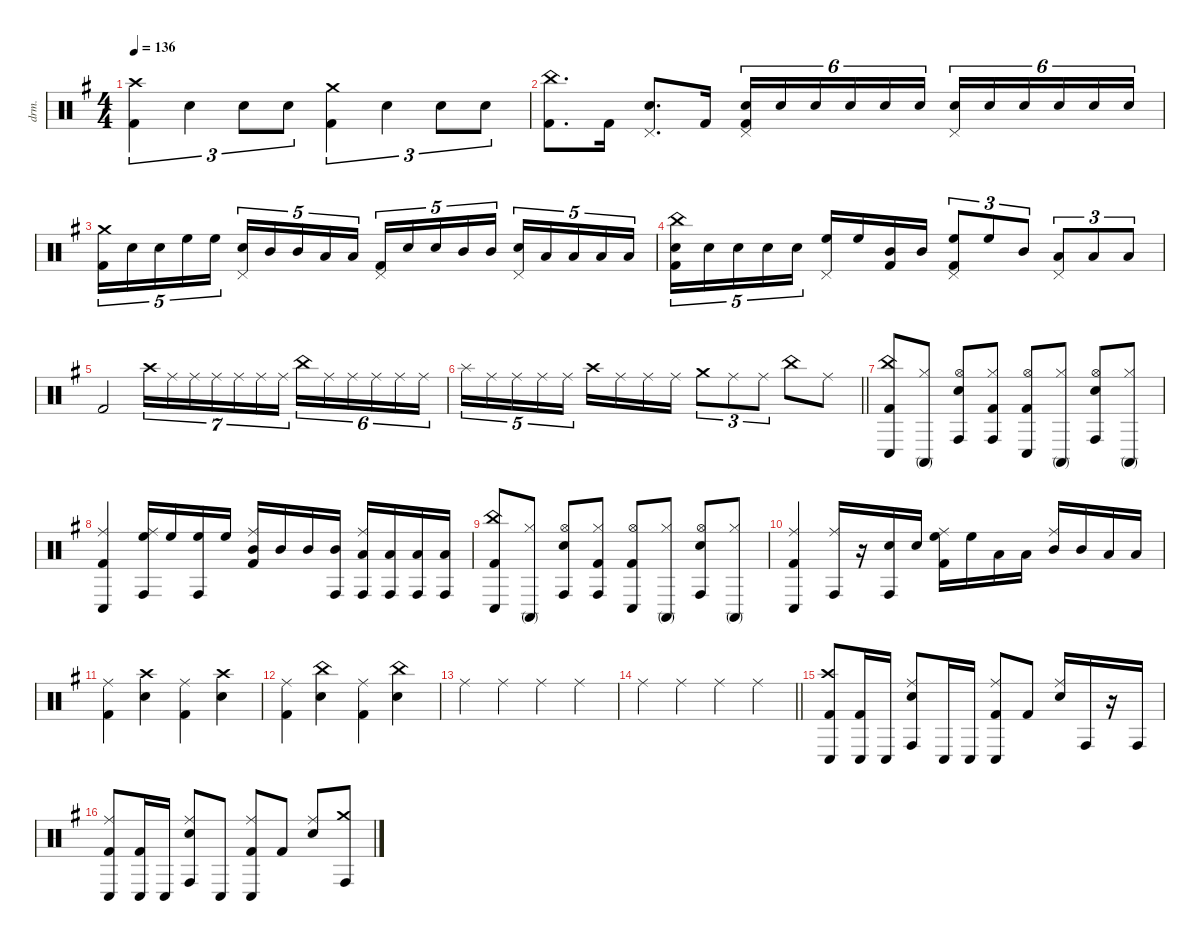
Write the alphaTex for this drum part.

\defaultSystemsLayout 4
\hideDynamics
\bracketExtendMode nobrackets
\otherSystemsTrackNameOrientation horizontal
\track ("Batterie" "drm.") {instrument percussion}
\staff {score}
\articulation defaults
\ts (4 4)
\tempo 136
\clef neutral
\ks g
("Crash high (hit)"{acc forcenatural} "Kick (hit) 2"{acc forcenatural}).4{tu (3 2) dy f beam Down} "Snare (hit) 2"{acc forcenatural}.4{tu (3 2) beam Down} "Snare (hit) 2"{acc forcenatural}.8{tu (3 2) beam Down} "Snare (hit) 2"{acc forcenatural}.8{tu (3 2) beam Down} ("Crash medium (hit)"{acc forcenatural} "Kick (hit) 2"{acc forcenatural}).4{tu (3 2) beam Down} "Snare (hit) 2"{acc forcenatural}.4{tu (3 2) beam Down} "Snare (hit) 2"{acc forcenatural}.8{tu (3 2) beam Down} "Snare (hit) 2"{acc forcenatural}.8{tu (3 2) beam Down} |
("China (hit)"{acc forcenatural} "Kick (hit) 2"{acc forcenatural}).8{d beam Down} "Kick (hit) 2"{acc forcenatural}.16{beam Down} ("Pedal Hi-Hat (hit)"{acc forcenatural} "Snare (hit) 2"{acc forcenatural}).8{d beam Up} "Kick (hit) 2"{acc forcenatural}.16{beam Up} ("Pedal Hi-Hat (hit)"{acc forcenatural} "Snare (hit) 2"{acc forcenatural} "Kick (hit) 2"{acc forcenatural}).16{tu (6 4) dy p beam Up} "Snare (hit) 2"{acc forcenatural}.16{tu (6 4) beam Up} "Snare (hit) 2"{acc forcenatural}.16{tu (6 4) beam Up} "Snare (hit) 2"{acc forcenatural}.16{tu (6 4) dy mp beam Up} "Snare (hit) 2"{acc forcenatural}.16{tu (6 4) beam Up} "Snare (hit) 2"{acc forcenatural}.16{tu (6 4) beam Up} ("Pedal Hi-Hat (hit)"{acc forcenatural} "Snare (hit) 2"{acc forcenatural}).16{tu (6 4) dy p beam Up} "Snare (hit) 2"{acc forcenatural}.16{tu (6 4) dy mf beam Up} "Snare (hit) 2"{acc forcenatural}.16{tu (6 4) beam Up} "Snare (hit) 2"{acc forcenatural}.16{tu (6 4) dy f beam Up} "Snare (hit) 2"{acc forcenatural}.16{tu (6 4) beam Up} "Snare (hit) 2"{acc forcenatural}.16{tu (6 4) beam Up} |
("Crash medium (hit)"{acc forcenatural} "Kick (hit) 2"{acc forcenatural}).16{tu (5 4) beam Down} "Snare (hit) 2"{acc forcenatural}.16{tu (5 4) beam Down} "Snare (hit) 2"{acc forcenatural}.16{tu (5 4) beam Down} "High Floor Tom (hit)"{acc forcenatural}.16{tu (5 4) beam Down} "High Floor Tom (hit)"{acc forcenatural}.16{tu (5 4) beam Down} ("Pedal Hi-Hat (hit)"{acc forcenatural} "Snare (hit) 2"{acc forcenatural}).16{tu (5 4) beam Up} "Mid Tom (hit)"{acc forcenatural}.16{tu (5 4) beam Up} "Mid Tom (hit)"{acc forcenatural}.16{tu (5 4) beam Up} "Low Tom (hit)"{acc forcenatural}.16{tu (5 4) beam Up} "Low Tom (hit)"{acc forcenatural}.16{tu (5 4) beam Up} ("Pedal Hi-Hat (hit)"{acc forcenatural} "Kick (hit) 2"{acc forcenatural}).16{tu (5 4) beam Up} "Snare (hit) 2"{acc forcenatural}.16{tu (5 4) beam Up} "Snare (hit) 2"{acc forcenatural}.16{tu (5 4) beam Up} "Mid Tom (hit)"{acc forcenatural}.16{tu (5 4) beam Up} "Mid Tom (hit)"{acc forcenatural}.16{tu (5 4) beam Up} ("Pedal Hi-Hat (hit)"{acc forcenatural} "Snare (hit) 2"{acc forcenatural}).16{tu (5 4) beam Up} "Low Tom (hit)"{acc forcenatural}.16{tu (5 4) beam Up} "Low Tom (hit)"{acc forcenatural}.16{tu (5 4) beam Up} "Low Floor Tom (hit)"{acc forcenatural}.16{tu (5 4) beam Up} "Low Floor Tom (hit)"{acc forcenatural}.16{tu (5 4) beam Up} |
("China (hit)"{acc forcenatural} "Snare (hit) 2"{acc forcenatural} "Kick (hit) 2"{acc forcenatural}).16{tu (5 4) beam Down} "Snare (hit) 2"{acc forcenatural}.16{tu (5 4) beam Down} "Snare (hit) 2"{acc forcenatural}.16{tu (5 4) beam Down} "Snare (hit) 2"{acc forcenatural}.16{tu (5 4) beam Down} "Snare (hit) 2"{acc forcenatural}.16{tu (5 4) beam Down} ("Pedal Hi-Hat (hit)"{acc forcenatural} "High Floor Tom (hit)"{acc forcenatural}).16{beam Up} "High Floor Tom (hit)"{acc forcenatural}.16{beam Up} ("Mid Tom (hit)"{acc forcenatural} "Kick (hit) 2"{acc forcenatural}).16{beam Up} "Mid Tom (hit)"{acc forcenatural}.16{beam Up} ("Pedal Hi-Hat (hit)"{acc forcenatural} "High Floor Tom (hit)"{acc forcenatural} "Kick (hit) 2"{acc forcenatural}).8{tu (3 2) beam Up} "High Floor Tom (hit)"{acc forcenatural}.8{tu (3 2) beam Up} "Mid Tom (hit)"{acc forcenatural}.8{tu (3 2) beam Up} ("Pedal Hi-Hat (hit)"{acc forcenatural} "Low Tom (hit)"{acc forcenatural}).8{tu (3 2) beam Up} "Low Tom (hit)"{acc forcenatural}.8{tu (3 2) beam Up} "Low Floor Tom (hit)"{acc forcenatural}.8{tu (3 2) beam Up} |
"Kick (hit) 2"{acc forcenatural}.2{beam Up} "Crash high (hit)"{acc forcenatural}.16{tu (7 4) beam Down} "Ride (middle)"{acc forcenatural}.16{tu (7 4) beam Down} "Ride (middle)"{acc forcenatural}.16{tu (7 4) beam Down} "Ride (middle)"{acc forcenatural}.16{tu (7 4) beam Down} "Ride (middle)"{acc forcenatural}.16{tu (7 4) beam Down} "Ride (middle)"{acc forcenatural}.16{tu (7 4) beam Down} "Ride (middle)"{acc forcenatural}.16{tu (7 4) beam Down} "China (hit)"{acc forcenatural}.16{tu (6 4) beam Down} "Ride (middle)"{acc forcenatural}.16{tu (6 4) beam Down} "Ride (middle)"{acc forcenatural}.16{tu (6 4) beam Down} "Ride (middle)"{acc forcenatural}.16{tu (6 4) beam Down} "Ride (middle)"{acc forcenatural}.16{tu (6 4) beam Down} "Ride (middle)"{acc forcenatural}.16{tu (6 4) beam Down} |
\barLineRight lightlight "Splash (hit)"{acc forcenatural}.16{tu (5 4) beam Down} "Ride (middle)"{acc forcenatural}.16{tu (5 4) beam Down} "Ride (middle)"{acc forcenatural}.16{tu (5 4) beam Down} "Ride (middle)"{acc forcenatural}.16{tu (5 4) beam Down} "Ride (middle)"{acc forcenatural}.16{tu (5 4) beam Down} "Crash high (hit)"{acc forcenatural}.16{beam Down} "Ride (middle)"{acc forcenatural}.16{beam Down} "Ride (middle)"{acc forcenatural}.16{beam Down} "Ride (middle)"{acc forcenatural}.16{beam Down} "Crash medium (hit)"{acc forcenatural}.8{tu (3 2) beam Down} "Ride (middle)"{acc forcenatural}.8{tu (3 2) beam Down} "Ride (middle)"{acc forcenatural}.8{tu (3 2) beam Down} "China (hit)"{acc forcenatural}.8{beam Down} "Ride (middle)"{acc forcenatural}.8{beam Down}
|
("China (hit)"{acc forcenatural} "Conga low (hit)"{acc forcenatural} "Kick (hit) 2"{acc forcenatural}).8{beam Up} ("Hi-Hat (closed)"{acc forcenatural} "Conga high (mute)"{acc forcenatural}).8{beam Up} ("Hi-Hat (open)"{acc forcenatural} "Conga high (hit)"{acc forcenatural} "Snare (hit) 2"{acc forcenatural}).8{beam Up} ("Hi-Hat (closed)"{acc forcenatural} "Conga high (hit)"{acc forcenatural} "Kick (hit) 2"{acc forcenatural}).8{beam Up} ("Hi-Hat (open)"{acc forcenatural} "Conga low (hit)"{acc forcenatural} "Kick (hit) 2"{acc forcenatural}).8{beam Up} ("Hi-Hat (closed)"{acc forcenatural} "Conga high (mute)"{acc forcenatural}).8{beam Up} ("Hi-Hat (open)"{acc forcenatural} "Conga high (hit)"{acc forcenatural} "Snare (hit) 2"{acc forcenatural}).8{beam Up} ("Hi-Hat (closed)"{acc forcenatural} "Conga high (mute)"{acc forcenatural}).8{beam Up} |
("Ride (middle)"{acc forcenatural} "Conga low (hit)"{acc forcenatural} "Kick (hit) 2"{acc forcenatural}).4{beam Up} ("Ride (middle)"{acc forcenatural} "High Floor Tom (hit)"{acc forcenatural} "Conga high (hit)"{acc forcenatural}).16{beam Up} "High Floor Tom (hit)"{acc forcenatural}.16{beam Up} ("High Floor Tom (hit)"{acc forcenatural} "Conga high (hit)"{acc forcenatural}).16{beam Up} "High Floor Tom (hit)"{acc forcenatural}.16{beam Up} ("Ride (middle)"{acc forcenatural} "Mid Tom (hit)"{acc forcenatural} "Kick (hit) 2"{acc forcenatural}).16{beam Up} "Mid Tom (hit)"{acc forcenatural}.16{beam Up} "Mid Tom (hit)"{acc forcenatural}.16{beam Up} ("Mid Tom (hit)"{acc forcenatural} "Conga high (hit)"{acc forcenatural}).16{beam Up} ("Ride (middle)"{acc forcenatural} "Low Tom (hit)"{acc forcenatural} "Conga high (hit)"{acc forcenatural}).16{beam Up} ("Low Tom (hit)"{acc forcenatural} "Conga high (hit)"{acc forcenatural}).16{beam Up} ("Low Floor Tom (hit)"{acc forcenatural} "Conga high (hit)"{acc forcenatural}).16{beam Up} ("Low Floor Tom (hit)"{acc forcenatural} "Conga high (hit)"{acc forcenatural}).16{beam Up} |
("China (hit)"{acc forcenatural} "Conga low (hit)"{acc forcenatural} "Kick (hit) 2"{acc forcenatural}).8{beam Up} ("Hi-Hat (closed)"{acc forcenatural} "Conga high (mute)"{acc forcenatural}).8{beam Up} ("Hi-Hat (open)"{acc forcenatural} "Conga high (hit)"{acc forcenatural} "Snare (hit) 2"{acc forcenatural}).8{beam Up} ("Hi-Hat (closed)"{acc forcenatural} "Conga high (hit)"{acc forcenatural} "Kick (hit) 2"{acc forcenatural}).8{beam Up} ("Hi-Hat (open)"{acc forcenatural} "Conga low (hit)"{acc forcenatural} "Kick (hit) 2"{acc forcenatural}).8{beam Up} ("Hi-Hat (closed)"{acc forcenatural} "Conga high (mute)"{acc forcenatural}).8{beam Up} ("Hi-Hat (open)"{acc forcenatural} "Conga high (hit)"{acc forcenatural} "Snare (hit) 2"{acc forcenatural}).8{beam Up} ("Hi-Hat (closed)"{acc forcenatural} "Conga high (mute)"{acc forcenatural}).8{beam Up} |
("Ride (middle)"{acc forcenatural} "Conga low (hit)"{acc forcenatural} "Kick (hit) 2"{acc forcenatural}).4{beam Up} ("Ride (middle)"{acc forcenatural} "Conga high (hit)"{acc forcenatural}).16{beam Up} r.16{beam Up} ("Conga high (hit)"{acc forcenatural} "Snare (hit) 2"{acc forcenatural}).16{beam Up} "Snare (hit) 2"{acc forcenatural}.16{beam Up} ("Ride (middle)"{acc forcenatural} "High Floor Tom (hit)"{acc forcenatural} "Kick (hit) 2"{acc forcenatural}).16{beam Down} "High Floor Tom (hit)"{acc forcenatural}.16{beam Down} "Low Tom (hit)"{acc forcenatural}.16{beam Down} "Low Tom (hit)"{acc forcenatural}.16{beam Down} ("Ride (middle)"{acc forcenatural} "Mid Tom (hit)"{acc forcenatural}).16{beam Up} "Mid Tom (hit)"{acc forcenatural}.16{beam Up} "Low Floor Tom (hit)"{acc forcenatural}.16{beam Up} "Low Floor Tom (hit)"{acc forcenatural}.16{beam Up} |
("Ride (middle)"{acc forcenatural} "Kick (hit) 2"{acc forcenatural}).4{beam Down} ("Crash high (hit)"{acc forcenatural} "Snare (hit) 2"{acc forcenatural}).4{beam Down} ("Ride (middle)"{acc forcenatural} "Kick (hit) 2"{acc forcenatural}).4{beam Down} ("Crash high (hit)"{acc forcenatural} "Snare (hit) 2"{acc forcenatural}).4{beam Down} |
("Ride (middle)"{acc forcenatural} "Kick (hit) 2"{acc forcenatural}).4{beam Down} ("China (hit)"{acc forcenatural} "Snare (hit) 2"{acc forcenatural}).4{beam Down} ("Ride (middle)"{acc forcenatural} "Kick (hit) 2"{acc forcenatural}).4{beam Down} ("China (hit)"{acc forcenatural} "Snare (hit) 2"{acc forcenatural}).4{beam Down} |
"Ride (middle)"{acc forcenatural}.4{beam Down} "Ride (middle)"{acc forcenatural}.4{beam Down} "Ride (middle)"{acc forcenatural}.4{beam Down} "Ride (middle)"{acc forcenatural}.4{beam Down} |
\barLineRight lightlight "Ride (middle)"{acc forcenatural}.4{beam Down} "Ride (middle)"{acc forcenatural}.4{beam Down} "Ride (middle)"{acc forcenatural}.4{beam Down} "Ride (middle)"{acc forcenatural}.4{beam Down}
|
("Crash high (hit)"{acc forcenatural} "Conga low (hit)"{acc forcenatural} "Kick (hit) 2"{acc forcenatural}).8{beam Up} ("Conga low (hit)"{acc forcenatural} "Kick (hit) 2"{acc forcenatural}).16{beam Up} "Conga low (hit)"{acc forcenatural}.16{beam Up} ("Ride (middle)"{acc forcenatural} "Conga high (hit)"{acc forcenatural} "Snare (hit) 2"{acc forcenatural}).8{beam Up} "Conga low (hit)"{acc forcenatural}.16{beam Up} "Conga low (hit)"{acc forcenatural}.16{beam Up} ("Ride (middle)"{acc forcenatural} "Conga low (hit)"{acc forcenatural} "Kick (hit) 2"{acc forcenatural}).8{beam Up} "Kick (hit) 2"{acc forcenatural}.8{beam Up} ("Ride (middle)"{acc forcenatural} "Snare (hit) 2"{acc forcenatural}).16{beam Up} "Conga high (hit)"{acc forcenatural}.16{beam Up} r.16{beam Up} "Conga high (hit)"{acc forcenatural}.16{beam Up} |
("Ride (middle)"{acc forcenatural} "Conga low (hit)"{acc forcenatural} "Kick (hit) 2"{acc forcenatural}).8{beam Up} ("Conga low (hit)"{acc forcenatural} "Kick (hit) 2"{acc forcenatural}).16{beam Up} "Conga low (hit)"{acc forcenatural}.16{beam Up} ("Ride (middle)"{acc forcenatural} "Conga high (hit)"{acc forcenatural} "Snare (hit) 2"{acc forcenatural}).8{beam Up} "Conga low (hit)"{acc forcenatural}.8{beam Up} ("Ride (middle)"{acc forcenatural} "Conga low (hit)"{acc forcenatural} "Kick (hit) 2"{acc forcenatural}).8{beam Up} "Kick (hit) 2"{acc forcenatural}.8{beam Up} ("Ride (middle)"{acc forcenatural} "Snare (hit) 2"{acc forcenatural}).8{beam Up} ("Crash medium (hit)"{acc forcenatural} "Conga high (hit)"{acc forcenatural}).8{beam Up}
